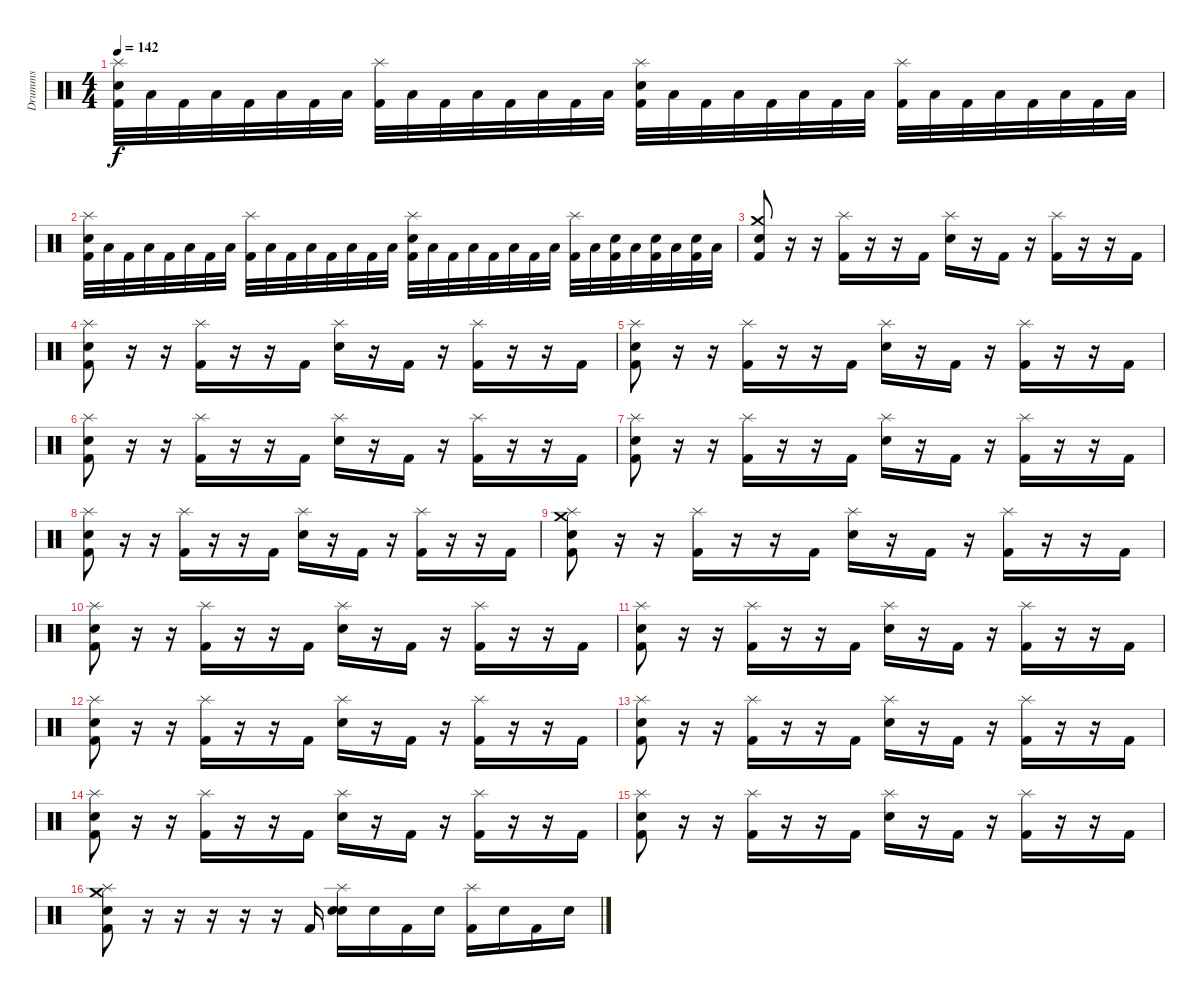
\track ("Drumms" "Drumms") {instrument percussion}
\staff {score}
\articulation defaults
\ts (4 4)
\tempo 142
\clef neutral
\ks c
("Splash (hit)" "Kick (hit) 2" "Electric Snare (hit)").32{dy f} "Low Floor Tom (hit)".32 "Kick (hit) 2".32 "Low Floor Tom (hit)".32 "Kick (hit) 2".32 "Low Floor Tom (hit)".32 "Kick (hit) 2".32 "Low Floor Tom (hit)".32 ("Splash (hit)" "Kick (hit) 2").32 "Low Floor Tom (hit)".32 "Kick (hit) 2".32 "Low Floor Tom (hit)".32 "Kick (hit) 2".32 "Low Floor Tom (hit)".32 "Kick (hit) 2".32 "Low Floor Tom (hit)".32 ("Splash (hit)" "Kick (hit) 2" "Electric Snare (hit)").32 "Low Floor Tom (hit)".32 "Kick (hit) 2".32 "Low Floor Tom (hit)".32 "Kick (hit) 2".32 "Low Floor Tom (hit)".32 "Kick (hit) 2".32 "Low Floor Tom (hit)".32 ("Splash (hit)" "Kick (hit) 2").32 "Low Floor Tom (hit)".32 "Kick (hit) 2".32 "Low Floor Tom (hit)".32 "Kick (hit) 2".32 "Low Floor Tom (hit)".32 "Kick (hit) 2".32 "Low Floor Tom (hit)".32 |
("Splash (hit)" "Kick (hit) 2" "Electric Snare (hit)").32 "Low Floor Tom (hit)".32 "Kick (hit) 2".32 "Low Floor Tom (hit)".32 "Kick (hit) 2".32 "Low Floor Tom (hit)".32 "Kick (hit) 2".32 "Low Floor Tom (hit)".32 ("Splash (hit)" "Kick (hit) 2").32 "Low Floor Tom (hit)".32 "Kick (hit) 2".32 "Low Floor Tom (hit)".32 "Kick (hit) 2".32 "Low Floor Tom (hit)".32 "Kick (hit) 2".32 "Low Floor Tom (hit)".32 ("Splash (hit)" "Kick (hit) 2" "Electric Snare (hit)").32 "Low Floor Tom (hit)".32 "Kick (hit) 2".32 "Low Floor Tom (hit)".32 "Kick (hit) 2".32 "Low Floor Tom (hit)".32 "Kick (hit) 2".32 "Low Floor Tom (hit)".32 ("Splash (hit)" "Kick (hit) 2").32 "Low Floor Tom (hit)".32 ("Electric Snare (hit)" "Kick (hit) 2").32 "Low Floor Tom (hit)".32 ("Electric Snare (hit)" "Kick (hit) 2").32 "Low Floor Tom (hit)".32 ("Electric Snare (hit)" "Kick (hit) 2").32 "Low Floor Tom (hit)".32 |
("Crash medium (hit)" "Kick (hit) 2" "Snare (hit) 2").8 r.16 r.16 ("Splash (hit)" "Kick (hit) 2").16 r.16 r.16 "Kick (hit) 2".16 ("Splash (hit)" "Snare (hit) 2").16 r.16 "Kick (hit) 2".16 r.16 ("Splash (hit)" "Kick (hit) 2").16 r.16 r.16 "Kick (hit) 2".16 |
("Splash (hit)" "Kick (hit) 2" "Snare (hit) 2").8 r.16 r.16 ("Splash (hit)" "Kick (hit) 2").16 r.16 r.16 "Kick (hit) 2".16 ("Splash (hit)" "Snare (hit) 2").16 r.16 "Kick (hit) 2".16 r.16 ("Splash (hit)" "Kick (hit) 2").16 r.16 r.16 "Kick (hit) 2".16 |
("Splash (hit)" "Kick (hit) 2" "Snare (hit) 2").8 r.16 r.16 ("Splash (hit)" "Kick (hit) 2").16 r.16 r.16 "Kick (hit) 2".16 ("Splash (hit)" "Snare (hit) 2").16 r.16 "Kick (hit) 2".16 r.16 ("Splash (hit)" "Kick (hit) 2").16 r.16 r.16 "Kick (hit) 2".16 |
("Splash (hit)" "Kick (hit) 2" "Snare (hit) 2").8 r.16 r.16 ("Splash (hit)" "Kick (hit) 2").16 r.16 r.16 "Kick (hit) 2".16 ("Splash (hit)" "Snare (hit) 2").16 r.16 "Kick (hit) 2".16 r.16 ("Splash (hit)" "Kick (hit) 2").16 r.16 r.16 "Kick (hit) 2".16 |
("Splash (hit)" "Kick (hit) 2" "Snare (hit) 2").8 r.16 r.16 ("Splash (hit)" "Kick (hit) 2").16 r.16 r.16 "Kick (hit) 2".16 ("Splash (hit)" "Snare (hit) 2").16 r.16 "Kick (hit) 2".16 r.16 ("Splash (hit)" "Kick (hit) 2").16 r.16 r.16 "Kick (hit) 2".16 |
("Splash (hit)" "Kick (hit) 2" "Snare (hit) 2").8 r.16 r.16 ("Splash (hit)" "Kick (hit) 2").16 r.16 r.16 "Kick (hit) 2".16 ("Splash (hit)" "Snare (hit) 2").16 r.16 "Kick (hit) 2".16 r.16 ("Splash (hit)" "Kick (hit) 2").16 r.16 r.16 "Kick (hit) 2".16 |
("Crash medium (hit)" "Splash (hit)" "Kick (hit) 2" "Snare (hit) 2").8 r.16 r.16 ("Splash (hit)" "Kick (hit) 2").16 r.16 r.16 "Kick (hit) 2".16 ("Splash (hit)" "Snare (hit) 2").16 r.16 "Kick (hit) 2".16 r.16 ("Splash (hit)" "Kick (hit) 2").16 r.16 r.16 "Kick (hit) 2".16 |
("Splash (hit)" "Kick (hit) 2" "Snare (hit) 2").8 r.16 r.16 ("Splash (hit)" "Kick (hit) 2").16 r.16 r.16 "Kick (hit) 2".16 ("Splash (hit)" "Snare (hit) 2").16 r.16 "Kick (hit) 2".16 r.16 ("Splash (hit)" "Kick (hit) 2").16 r.16 r.16 "Kick (hit) 2".16 |
("Splash (hit)" "Kick (hit) 2" "Snare (hit) 2").8 r.16 r.16 ("Splash (hit)" "Kick (hit) 2").16 r.16 r.16 "Kick (hit) 2".16 ("Splash (hit)" "Snare (hit) 2").16 r.16 "Kick (hit) 2".16 r.16 ("Splash (hit)" "Kick (hit) 2").16 r.16 r.16 "Kick (hit) 2".16 |
("Splash (hit)" "Kick (hit) 2" "Snare (hit) 2").8 r.16 r.16 ("Splash (hit)" "Kick (hit) 2").16 r.16 r.16 "Kick (hit) 2".16 ("Splash (hit)" "Snare (hit) 2").16 r.16 "Kick (hit) 2".16 r.16 ("Splash (hit)" "Kick (hit) 2").16 r.16 r.16 "Kick (hit) 2".16 |
("Splash (hit)" "Kick (hit) 2" "Snare (hit) 2").8 r.16 r.16 ("Splash (hit)" "Kick (hit) 2").16 r.16 r.16 "Kick (hit) 2".16 ("Splash (hit)" "Snare (hit) 2").16 r.16 "Kick (hit) 2".16 r.16 ("Splash (hit)" "Kick (hit) 2").16 r.16 r.16 "Kick (hit) 2".16 |
("Splash (hit)" "Kick (hit) 2" "Snare (hit) 2").8 r.16 r.16 ("Splash (hit)" "Kick (hit) 2").16 r.16 r.16 "Kick (hit) 2".16 ("Splash (hit)" "Snare (hit) 2").16 r.16 "Kick (hit) 2".16 r.16 ("Splash (hit)" "Kick (hit) 2").16 r.16 r.16 "Kick (hit) 2".16 |
("Splash (hit)" "Kick (hit) 2" "Snare (hit) 2").8 r.16 r.16 ("Splash (hit)" "Kick (hit) 2").16 r.16 r.16 "Kick (hit) 2".16 ("Splash (hit)" "Snare (hit) 2").16 r.16 "Kick (hit) 2".16 r.16 ("Splash (hit)" "Kick (hit) 2").16 r.16 r.16 "Kick (hit) 2".16 |
("Crash medium (hit)" "Splash (hit)" "Kick (hit) 2" "Snare (hit) 2").8 r.16 r.16 r.16 r.16 r.16 "Kick (hit) 2".16 ("Splash (hit)" "Electric Snare (hit)" "Snare (hit) 2").16 "Electric Snare (hit)".16 "Kick (hit) 2".16 "Electric Snare (hit)".16 ("Splash (hit)" "Kick (hit) 2").16 "Electric Snare (hit)".16 "Kick (hit) 2".16 "Electric Snare (hit)".16
